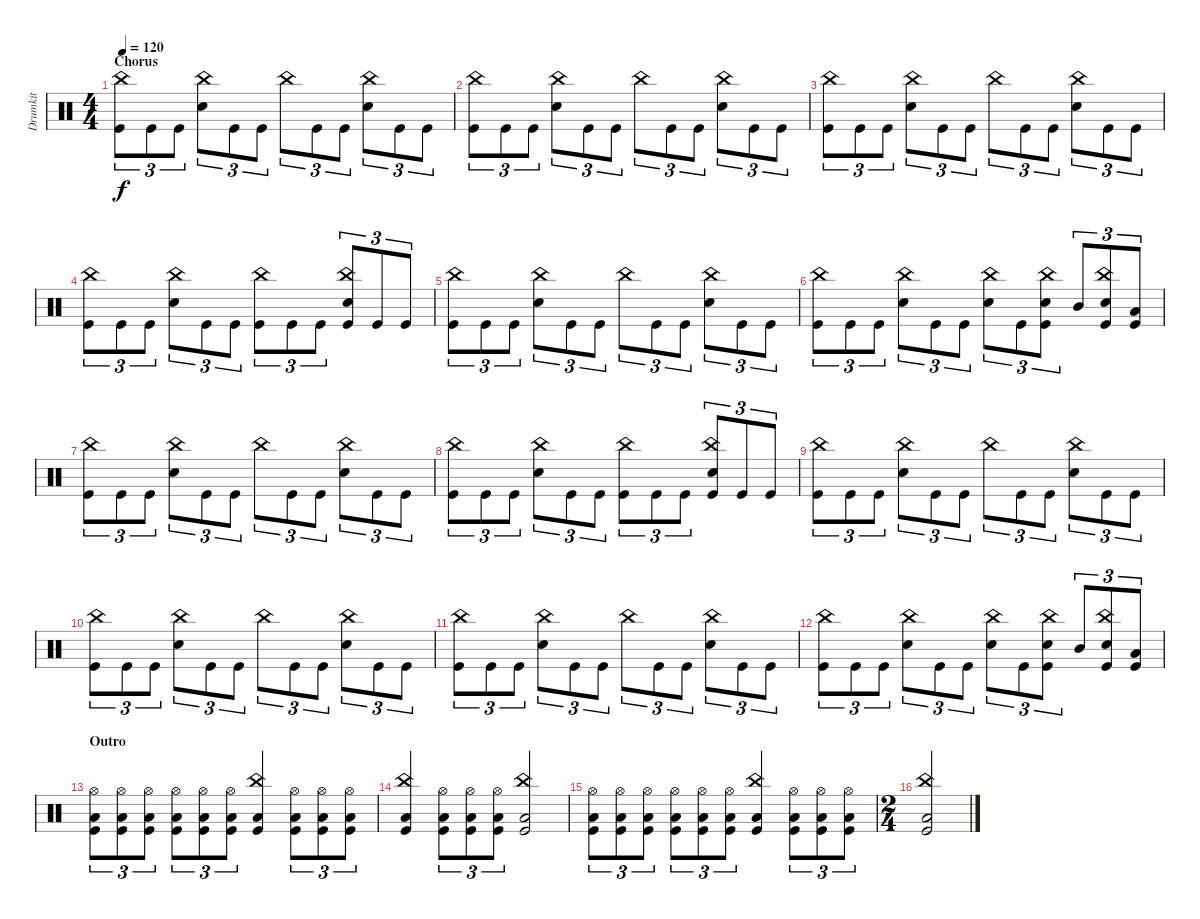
\track ("Drumkit" "Drumkit") {instrument percussion}
\staff {score}
\articulation defaults
\ts (4 4)
\section ("" "Chorus")
\tempo 120
\clef neutral
\ks c
("Kick (hit)" "China (hit)").8{tu (3 2) dy f} "Kick (hit)".8{tu (3 2)} "Kick (hit)".8{tu (3 2)} ("Snare (hit) 2" "China (hit)").8{tu (3 2)} "Kick (hit)".8{tu (3 2)} "Kick (hit)".8{tu (3 2)} "China (hit)".8{tu (3 2)} "Kick (hit)".8{tu (3 2)} "Kick (hit)".8{tu (3 2)} ("Snare (hit) 2" "China (hit)").8{tu (3 2)} "Kick (hit)".8{tu (3 2)} "Kick (hit)".8{tu (3 2)} |
("Kick (hit)" "China (hit)").8{tu (3 2)} "Kick (hit)".8{tu (3 2)} "Kick (hit)".8{tu (3 2)} ("Snare (hit) 2" "China (hit)").8{tu (3 2)} "Kick (hit)".8{tu (3 2)} "Kick (hit)".8{tu (3 2)} "China (hit)".8{tu (3 2)} "Kick (hit)".8{tu (3 2)} "Kick (hit)".8{tu (3 2)} ("Snare (hit) 2" "China (hit)").8{tu (3 2)} "Kick (hit)".8{tu (3 2)} "Kick (hit)".8{tu (3 2)} |
("Kick (hit)" "China (hit)").8{tu (3 2)} "Kick (hit)".8{tu (3 2)} "Kick (hit)".8{tu (3 2)} ("Snare (hit) 2" "China (hit)").8{tu (3 2)} "Kick (hit)".8{tu (3 2)} "Kick (hit)".8{tu (3 2)} "China (hit)".8{tu (3 2)} "Kick (hit)".8{tu (3 2)} "Kick (hit)".8{tu (3 2)} ("Snare (hit) 2" "China (hit)").8{tu (3 2)} "Kick (hit)".8{tu (3 2)} "Kick (hit)".8{tu (3 2)} |
("Kick (hit)" "China (hit)").8{tu (3 2)} "Kick (hit)".8{tu (3 2)} "Kick (hit)".8{tu (3 2)} ("Snare (hit) 2" "China (hit)").8{tu (3 2)} "Kick (hit)".8{tu (3 2)} "Kick (hit)".8{tu (3 2)} ("China (hit)" "Kick (hit)").8{tu (3 2)} "Kick (hit)".8{tu (3 2)} "Kick (hit)".8{tu (3 2)} ("Snare (hit) 2" "China (hit)" "Kick (hit)").8{tu (3 2)} "Kick (hit)".8{tu (3 2)} "Kick (hit)".8{tu (3 2)} |
("Kick (hit)" "China (hit)").8{tu (3 2)} "Kick (hit)".8{tu (3 2)} "Kick (hit)".8{tu (3 2)} ("Snare (hit) 2" "China (hit)").8{tu (3 2)} "Kick (hit)".8{tu (3 2)} "Kick (hit)".8{tu (3 2)} "China (hit)".8{tu (3 2)} "Kick (hit)".8{tu (3 2)} "Kick (hit)".8{tu (3 2)} ("Snare (hit) 2" "China (hit)").8{tu (3 2)} "Kick (hit)".8{tu (3 2)} "Kick (hit)".8{tu (3 2)} |
("Kick (hit)" "China (hit)").8{tu (3 2)} "Kick (hit)".8{tu (3 2)} "Kick (hit)".8{tu (3 2)} ("Snare (hit) 2" "China (hit)").8{tu (3 2)} "Kick (hit)".8{tu (3 2)} "Kick (hit)".8{tu (3 2)} ("China (hit)" "Snare (hit) 2").8{tu (3 2)} "Kick (hit)".8{tu (3 2)} ("Kick (hit)" "Snare (hit) 2" "China (hit)").8{tu (3 2)} "Mid Tom (hit)".8{tu (3 2)} ("Kick (hit)" "Snare (hit) 2" "China (hit)").8{tu (3 2)} ("Kick (hit)" "Low Tom (hit)").8{tu (3 2)} |
("Kick (hit)" "China (hit)").8{tu (3 2)} "Kick (hit)".8{tu (3 2)} "Kick (hit)".8{tu (3 2)} ("Snare (hit) 2" "China (hit)").8{tu (3 2)} "Kick (hit)".8{tu (3 2)} "Kick (hit)".8{tu (3 2)} "China (hit)".8{tu (3 2)} "Kick (hit)".8{tu (3 2)} "Kick (hit)".8{tu (3 2)} ("Snare (hit) 2" "China (hit)").8{tu (3 2)} "Kick (hit)".8{tu (3 2)} "Kick (hit)".8{tu (3 2)} |
("Kick (hit)" "China (hit)").8{tu (3 2)} "Kick (hit)".8{tu (3 2)} "Kick (hit)".8{tu (3 2)} ("Snare (hit) 2" "China (hit)").8{tu (3 2)} "Kick (hit)".8{tu (3 2)} "Kick (hit)".8{tu (3 2)} ("China (hit)" "Kick (hit)").8{tu (3 2)} "Kick (hit)".8{tu (3 2)} "Kick (hit)".8{tu (3 2)} ("Snare (hit) 2" "China (hit)" "Kick (hit)").8{tu (3 2)} "Kick (hit)".8{tu (3 2)} "Kick (hit)".8{tu (3 2)} |
("Kick (hit)" "China (hit)").8{tu (3 2)} "Kick (hit)".8{tu (3 2)} "Kick (hit)".8{tu (3 2)} ("Snare (hit) 2" "China (hit)").8{tu (3 2)} "Kick (hit)".8{tu (3 2)} "Kick (hit)".8{tu (3 2)} "China (hit)".8{tu (3 2)} "Kick (hit)".8{tu (3 2)} "Kick (hit)".8{tu (3 2)} ("Snare (hit) 2" "China (hit)").8{tu (3 2)} "Kick (hit)".8{tu (3 2)} "Kick (hit)".8{tu (3 2)} |
("Kick (hit)" "China (hit)").8{tu (3 2)} "Kick (hit)".8{tu (3 2)} "Kick (hit)".8{tu (3 2)} ("Snare (hit) 2" "China (hit)").8{tu (3 2)} "Kick (hit)".8{tu (3 2)} "Kick (hit)".8{tu (3 2)} "China (hit)".8{tu (3 2)} "Kick (hit)".8{tu (3 2)} "Kick (hit)".8{tu (3 2)} ("Snare (hit) 2" "China (hit)").8{tu (3 2)} "Kick (hit)".8{tu (3 2)} "Kick (hit)".8{tu (3 2)} |
("Kick (hit)" "China (hit)").8{tu (3 2)} "Kick (hit)".8{tu (3 2)} "Kick (hit)".8{tu (3 2)} ("Snare (hit) 2" "China (hit)").8{tu (3 2)} "Kick (hit)".8{tu (3 2)} "Kick (hit)".8{tu (3 2)} "China (hit)".8{tu (3 2)} "Kick (hit)".8{tu (3 2)} "Kick (hit)".8{tu (3 2)} ("Snare (hit) 2" "China (hit)").8{tu (3 2)} "Kick (hit)".8{tu (3 2)} "Kick (hit)".8{tu (3 2)} |
("Kick (hit)" "China (hit)").8{tu (3 2)} "Kick (hit)".8{tu (3 2)} "Kick (hit)".8{tu (3 2)} ("Snare (hit) 2" "China (hit)").8{tu (3 2)} "Kick (hit)".8{tu (3 2)} "Kick (hit)".8{tu (3 2)} ("China (hit)" "Snare (hit) 2").8{tu (3 2)} "Kick (hit)".8{tu (3 2)} ("Kick (hit)" "Snare (hit) 2" "China (hit)").8{tu (3 2)} "Mid Tom (hit)".8{tu (3 2)} ("Kick (hit)" "Snare (hit) 2" "China (hit)").8{tu (3 2)} ("Kick (hit)" "Low Tom (hit)").8{tu (3 2)} |
\section ("" "Outro")
("Low Tom (hit)" "Kick (hit)" "Hi-Hat (open)").8{tu (3 2)} ("Low Tom (hit)" "Kick (hit)" "Hi-Hat (open)").8{tu (3 2)} ("Low Tom (hit)" "Kick (hit)" "Hi-Hat (open)").8{tu (3 2)} ("Low Tom (hit)" "Kick (hit)" "Hi-Hat (open)").8{tu (3 2)} ("Low Tom (hit)" "Kick (hit)" "Hi-Hat (open)").8{tu (3 2)} ("Low Tom (hit)" "Kick (hit)" "Hi-Hat (open)").8{tu (3 2)} ("China (hit)" "Low Tom (hit)" "Kick (hit)").4 ("Low Tom (hit)" "Kick (hit)" "Hi-Hat (open)").8{tu (3 2)} ("Low Tom (hit)" "Kick (hit)" "Hi-Hat (open)").8{tu (3 2)} ("Low Tom (hit)" "Kick (hit)" "Hi-Hat (open)").8{tu (3 2)} |
("China (hit)" "Low Tom (hit)" "Kick (hit)").4 ("Low Tom (hit)" "Kick (hit)" "Hi-Hat (open)").8{tu (3 2)} ("Low Tom (hit)" "Kick (hit)" "Hi-Hat (open)").8{tu (3 2)} ("Low Tom (hit)" "Kick (hit)" "Hi-Hat (open)").8{tu (3 2)} ("China (hit)" "Low Tom (hit)" "Kick (hit)").2 |
("Low Tom (hit)" "Kick (hit)" "Hi-Hat (open)").8{tu (3 2)} ("Low Tom (hit)" "Kick (hit)" "Hi-Hat (open)").8{tu (3 2)} ("Low Tom (hit)" "Kick (hit)" "Hi-Hat (open)").8{tu (3 2)} ("Low Tom (hit)" "Kick (hit)" "Hi-Hat (open)").8{tu (3 2)} ("Low Tom (hit)" "Kick (hit)" "Hi-Hat (open)").8{tu (3 2)} ("Low Tom (hit)" "Kick (hit)" "Hi-Hat (open)").8{tu (3 2)} ("China (hit)" "Low Tom (hit)" "Kick (hit)").4 ("Low Tom (hit)" "Kick (hit)" "Hi-Hat (open)").8{tu (3 2)} ("Low Tom (hit)" "Kick (hit)" "Hi-Hat (open)").8{tu (3 2)} ("Low Tom (hit)" "Kick (hit)" "Hi-Hat (open)").8{tu (3 2)} |
\ts (2 4)
("China (hit)" "Low Tom (hit)" "Kick (hit)").2
